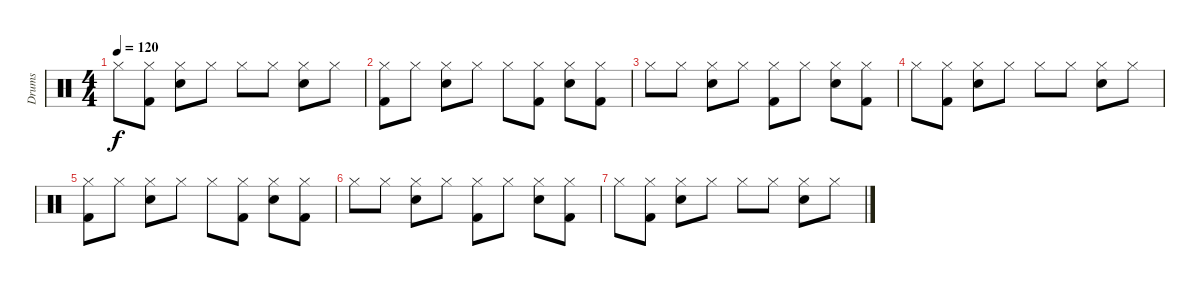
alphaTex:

\track ("Drums" "Drums") {instrument percussion}
\staff {score}
\articulation defaults
\ts (4 4)
\tempo 120
\clef neutral
\ks c "Hi-Hat (closed)".8{dy f}
("Hi-Hat (closed)" "Kick (hit) 2").8 ("Hi-Hat (closed)" "Electric Snare (hit)").8 "Hi-Hat (closed)".8 "Hi-Hat (closed)".8 "Hi-Hat (closed)".8 ("Hi-Hat (closed)" "Electric Snare (hit)").8 "Hi-Hat (closed)".8 |
("Hi-Hat (closed)" "Kick (hit) 2").8 "Hi-Hat (closed)".8 ("Hi-Hat (closed)" "Electric Snare (hit)").8 "Hi-Hat (closed)".8 "Hi-Hat (closed)".8 ("Hi-Hat (closed)" "Kick (hit) 2").8 ("Hi-Hat (closed)" "Electric Snare (hit)").8 ("Hi-Hat (closed)" "Kick (hit) 2").8 |
"Hi-Hat (closed)".8 "Hi-Hat (closed)".8 ("Hi-Hat (closed)" "Electric Snare (hit)").8 "Hi-Hat (closed)".8 ("Hi-Hat (closed)" "Kick (hit) 2").8 "Hi-Hat (closed)".8 ("Hi-Hat (closed)" "Electric Snare (hit)").8 ("Hi-Hat (closed)" "Kick (hit) 2").8 |
"Hi-Hat (closed)".8 ("Hi-Hat (closed)" "Kick (hit) 2").8 ("Hi-Hat (closed)" "Electric Snare (hit)").8 "Hi-Hat (closed)".8 "Hi-Hat (closed)".8 "Hi-Hat (closed)".8 ("Hi-Hat (closed)" "Electric Snare (hit)").8 "Hi-Hat (closed)".8 |
("Hi-Hat (closed)" "Kick (hit) 2").8 "Hi-Hat (closed)".8 ("Hi-Hat (closed)" "Electric Snare (hit)").8 "Hi-Hat (closed)".8 "Hi-Hat (closed)".8 ("Hi-Hat (closed)" "Kick (hit) 2").8 ("Hi-Hat (closed)" "Electric Snare (hit)").8 ("Hi-Hat (closed)" "Kick (hit) 2").8 |
"Hi-Hat (closed)".8 "Hi-Hat (closed)".8 ("Hi-Hat (closed)" "Electric Snare (hit)").8 "Hi-Hat (closed)".8 ("Hi-Hat (closed)" "Kick (hit) 2").8 "Hi-Hat (closed)".8 ("Hi-Hat (closed)" "Electric Snare (hit)").8 ("Hi-Hat (closed)" "Kick (hit) 2").8 |
"Hi-Hat (closed)".8 ("Hi-Hat (closed)" "Kick (hit) 2").8 ("Hi-Hat (closed)" "Electric Snare (hit)").8 "Hi-Hat (closed)".8 "Hi-Hat (closed)".8 "Hi-Hat (closed)".8 ("Hi-Hat (closed)" "Electric Snare (hit)").8 "Hi-Hat (closed)".8
